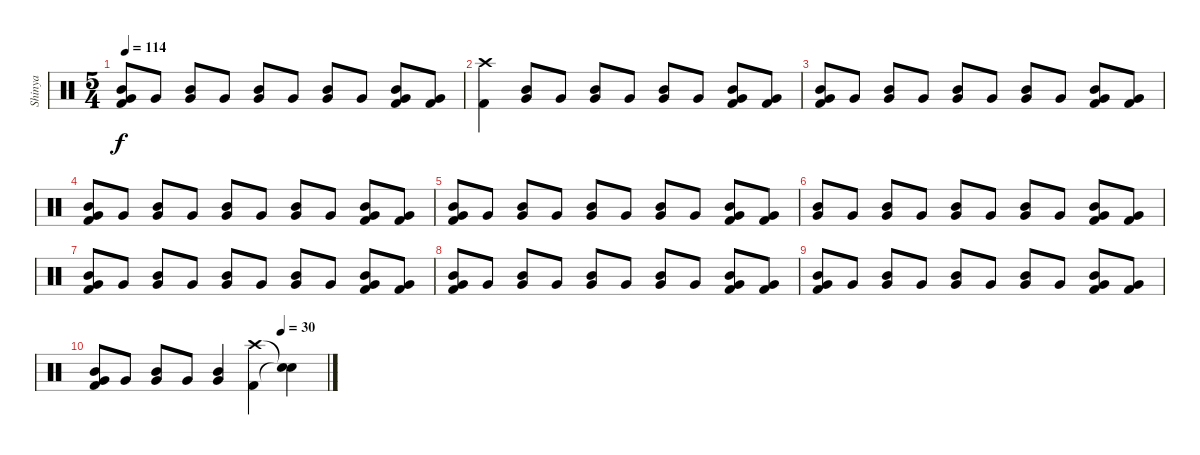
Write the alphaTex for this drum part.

\track ("Shinya" "Shinya") {instrument percussion}
\staff {score}
\articulation defaults
\ts (5 4)
\tempo 114
\clef neutral
\ks c
("Mid Tom (hit)" "Very Low Tom (hit)" "Kick (hit) 2").8{dy f} "Very Low Tom (hit)".8 ("Mid Tom (hit)" "Very Low Tom (hit)").8 "Very Low Tom (hit)".8 ("Mid Tom (hit)" "Very Low Tom (hit)").8 "Very Low Tom (hit)".8 ("Mid Tom (hit)" "Very Low Tom (hit)").8 "Very Low Tom (hit)".8 ("Mid Tom (hit)" "Very Low Tom (hit)" "Kick (hit) 2").8 ("Very Low Tom (hit)" "Kick (hit) 2").8 |
("Crash high (hit)" "Kick (hit) 2").4 ("Mid Tom (hit)" "Very Low Tom (hit)").8 "Very Low Tom (hit)".8 ("Mid Tom (hit)" "Very Low Tom (hit)").8 "Very Low Tom (hit)".8 ("Mid Tom (hit)" "Very Low Tom (hit)").8 "Very Low Tom (hit)".8 ("Mid Tom (hit)" "Very Low Tom (hit)" "Kick (hit) 2").8 ("Very Low Tom (hit)" "Kick (hit) 2").8 |
("Mid Tom (hit)" "Very Low Tom (hit)" "Kick (hit) 2").8 "Very Low Tom (hit)".8 ("Mid Tom (hit)" "Very Low Tom (hit)").8 "Very Low Tom (hit)".8 ("Mid Tom (hit)" "Very Low Tom (hit)").8 "Very Low Tom (hit)".8 ("Mid Tom (hit)" "Very Low Tom (hit)").8 "Very Low Tom (hit)".8 ("Mid Tom (hit)" "Very Low Tom (hit)" "Kick (hit) 2").8 ("Very Low Tom (hit)" "Kick (hit) 2").8 |
("Mid Tom (hit)" "Very Low Tom (hit)" "Kick (hit) 2").8 "Very Low Tom (hit)".8 ("Mid Tom (hit)" "Very Low Tom (hit)").8 "Very Low Tom (hit)".8 ("Mid Tom (hit)" "Very Low Tom (hit)").8 "Very Low Tom (hit)".8 ("Mid Tom (hit)" "Very Low Tom (hit)").8 "Very Low Tom (hit)".8 ("Mid Tom (hit)" "Very Low Tom (hit)" "Kick (hit) 2").8 ("Very Low Tom (hit)" "Kick (hit) 2").8 |
("Mid Tom (hit)" "Very Low Tom (hit)" "Kick (hit) 2").8 "Very Low Tom (hit)".8 ("Mid Tom (hit)" "Very Low Tom (hit)").8 "Very Low Tom (hit)".8 ("Mid Tom (hit)" "Very Low Tom (hit)").8 "Very Low Tom (hit)".8 ("Mid Tom (hit)" "Very Low Tom (hit)").8 "Very Low Tom (hit)".8 ("Mid Tom (hit)" "Very Low Tom (hit)" "Kick (hit) 2").8 ("Very Low Tom (hit)" "Kick (hit) 2").8 |
("Mid Tom (hit)" "Very Low Tom (hit)").8 "Very Low Tom (hit)".8 ("Mid Tom (hit)" "Very Low Tom (hit)").8 "Very Low Tom (hit)".8 ("Mid Tom (hit)" "Very Low Tom (hit)").8 "Very Low Tom (hit)".8 ("Mid Tom (hit)" "Very Low Tom (hit)").8 "Very Low Tom (hit)".8 ("Mid Tom (hit)" "Very Low Tom (hit)" "Kick (hit) 2").8 ("Very Low Tom (hit)" "Kick (hit) 2").8 |
("Mid Tom (hit)" "Very Low Tom (hit)" "Kick (hit) 2").8 "Very Low Tom (hit)".8 ("Mid Tom (hit)" "Very Low Tom (hit)").8 "Very Low Tom (hit)".8 ("Mid Tom (hit)" "Very Low Tom (hit)").8 "Very Low Tom (hit)".8 ("Mid Tom (hit)" "Very Low Tom (hit)").8 "Very Low Tom (hit)".8 ("Mid Tom (hit)" "Very Low Tom (hit)" "Kick (hit) 2").8 ("Very Low Tom (hit)" "Kick (hit) 2").8 |
("Mid Tom (hit)" "Very Low Tom (hit)" "Kick (hit) 2").8 "Very Low Tom (hit)".8 ("Mid Tom (hit)" "Very Low Tom (hit)").8 "Very Low Tom (hit)".8 ("Mid Tom (hit)" "Very Low Tom (hit)").8 "Very Low Tom (hit)".8 ("Mid Tom (hit)" "Very Low Tom (hit)").8 "Very Low Tom (hit)".8 ("Mid Tom (hit)" "Very Low Tom (hit)" "Kick (hit) 2").8 ("Very Low Tom (hit)" "Kick (hit) 2").8 |
("Mid Tom (hit)" "Very Low Tom (hit)" "Kick (hit) 2").8 "Very Low Tom (hit)".8 ("Mid Tom (hit)" "Very Low Tom (hit)").8 "Very Low Tom (hit)".8 ("Mid Tom (hit)" "Very Low Tom (hit)").8 "Very Low Tom (hit)".8 ("Mid Tom (hit)" "Very Low Tom (hit)").8 "Very Low Tom (hit)".8 ("Mid Tom (hit)" "Very Low Tom (hit)" "Kick (hit) 2").8 ("Very Low Tom (hit)" "Kick (hit) 2").8 |
\tempo (30 0.8)
("Mid Tom (hit)" "Very Low Tom (hit)" "Kick (hit) 2").8 "Very Low Tom (hit)".8 ("Mid Tom (hit)" "Very Low Tom (hit)").8 "Very Low Tom (hit)".8 ("Very Low Tom (hit)" "Mid Tom (hit)").4 ("Kick (hit) 2" "Crash high (hit)").4 ("Snare (hit)"{t} "Snare (hit)"{t}).4
